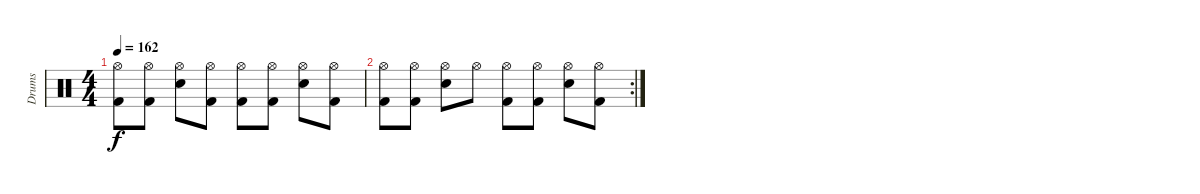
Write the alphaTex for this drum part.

\track ("Drums" "Drums") {instrument percussion}
\staff {score}
\articulation defaults
\ts (4 4)
\tempo 162
\clef neutral
\ks c
("Hi-Hat (open)" "Kick (hit) 2").8{dy f} ("Hi-Hat (open)" "Kick (hit) 2").8 ("Hi-Hat (open)" "Electric Snare (hit)").8 ("Hi-Hat (open)" "Kick (hit) 2").8 ("Hi-Hat (open)" "Kick (hit) 2").8 ("Hi-Hat (open)" "Kick (hit) 2").8 ("Hi-Hat (open)" "Electric Snare (hit)").8 ("Hi-Hat (open)" "Kick (hit) 2").8 |
\rc 2
("Hi-Hat (open)" "Kick (hit) 2").8 ("Hi-Hat (open)" "Kick (hit) 2").8 ("Hi-Hat (open)" "Electric Snare (hit)").8 "Hi-Hat (open)".8 ("Hi-Hat (open)" "Kick (hit) 2").8 ("Hi-Hat (open)" "Kick (hit) 2").8 ("Hi-Hat (open)" "Electric Snare (hit)").8 ("Hi-Hat (open)" "Kick (hit) 2").8
